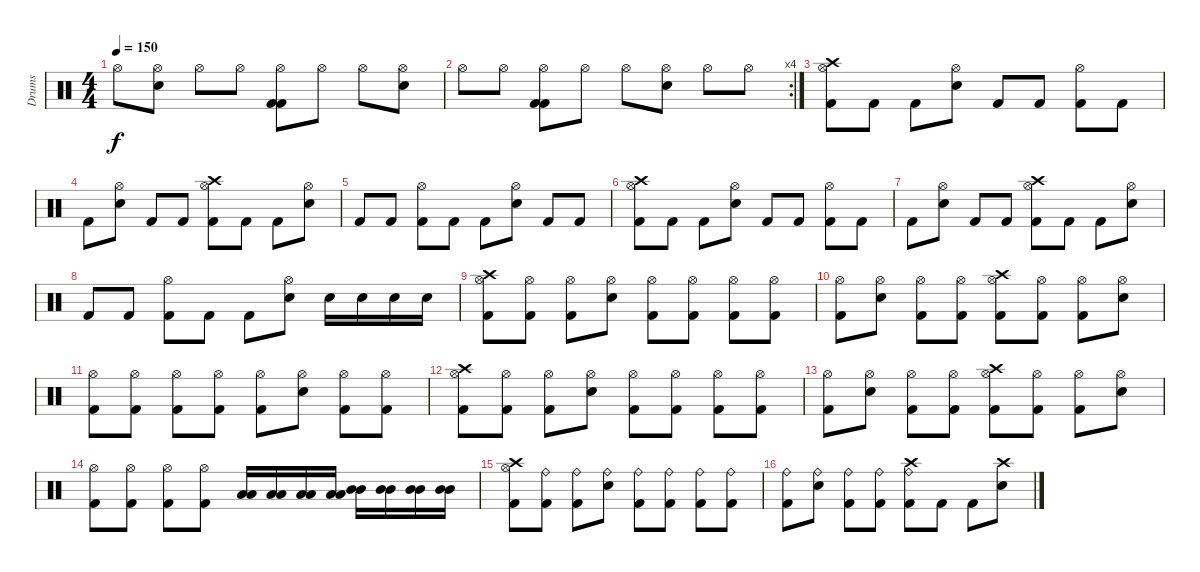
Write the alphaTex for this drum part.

\track ("Drums" "Drums") {instrument percussion}
\staff {score}
\articulation defaults
\ts (4 4)
\tempo 150
\clef neutral
\ks c "Hi-Hat (open)".8{dy f}
("Snare (hit) 2" "Hi-Hat (open)").8 "Hi-Hat (open)".8 "Hi-Hat (open)".8 ("Kick (hit) 2" "Kick (hit) 2" "Hi-Hat (open)").8 "Hi-Hat (open)".8 "Hi-Hat (open)".8 ("Snare (hit) 2" "Hi-Hat (open)").8 |
\rc 4 "Hi-Hat (open)".8 "Hi-Hat (open)".8
("Kick (hit) 2" "Kick (hit) 2" "Hi-Hat (open)").8 "Hi-Hat (open)".8 "Hi-Hat (open)".8 ("Snare (hit) 2" "Hi-Hat (open)").8 "Hi-Hat (open)".8 "Hi-Hat (open)".8 |
("Crash high (hit)" "Kick (hit) 2" "Hi-Hat (open)").8 "Kick (hit) 2".8 "Kick (hit) 2".8 ("Hi-Hat (open)" "Snare (hit) 2").8 "Kick (hit) 2".8 "Kick (hit) 2".8 ("Hi-Hat (open)" "Kick (hit) 2").8 "Kick (hit) 2".8 |
"Kick (hit) 2".8 ("Hi-Hat (open)" "Snare (hit) 2").8 "Kick (hit) 2".8 "Kick (hit) 2".8 ("Crash high (hit)" "Hi-Hat (open)" "Kick (hit) 2").8 "Kick (hit) 2".8 "Kick (hit) 2".8 ("Hi-Hat (open)" "Snare (hit) 2").8 |
"Kick (hit) 2".8 "Kick (hit) 2".8 ("Hi-Hat (open)" "Kick (hit) 2").8 "Kick (hit) 2".8 "Kick (hit) 2".8 ("Hi-Hat (open)" "Snare (hit) 2").8 "Kick (hit) 2".8 "Kick (hit) 2".8 |
("Crash high (hit)" "Kick (hit) 2" "Hi-Hat (open)").8 "Kick (hit) 2".8 "Kick (hit) 2".8 ("Hi-Hat (open)" "Snare (hit) 2").8 "Kick (hit) 2".8 "Kick (hit) 2".8 ("Hi-Hat (open)" "Kick (hit) 2").8 "Kick (hit) 2".8 |
"Kick (hit) 2".8 ("Hi-Hat (open)" "Snare (hit) 2").8 "Kick (hit) 2".8 "Kick (hit) 2".8 ("Crash high (hit)" "Hi-Hat (open)" "Kick (hit) 2").8 "Kick (hit) 2".8 "Kick (hit) 2".8 ("Hi-Hat (open)" "Snare (hit) 2").8 |
"Kick (hit) 2".8 "Kick (hit) 2".8 ("Hi-Hat (open)" "Kick (hit) 2").8 "Kick (hit) 2".8 "Kick (hit) 2".8 ("Hi-Hat (open)" "Snare (hit) 2").8 "Snare (hit) 2".16 "Snare (hit) 2".16 "Snare (hit) 2".16 "Snare (hit) 2".16 |
("Crash high (hit)" "Kick (hit) 2" "Hi-Hat (open)").8 ("Hi-Hat (open)" "Kick (hit) 2").8 ("Hi-Hat (open)" "Kick (hit) 2").8 ("Hi-Hat (open)" "Snare (hit) 2").8 ("Hi-Hat (open)" "Kick (hit) 2").8 ("Hi-Hat (open)" "Kick (hit) 2").8 ("Hi-Hat (open)" "Kick (hit) 2").8 ("Hi-Hat (open)" "Kick (hit) 2").8 |
("Hi-Hat (open)" "Kick (hit) 2").8 ("Hi-Hat (open)" "Snare (hit) 2").8 ("Hi-Hat (open)" "Kick (hit) 2").8 ("Hi-Hat (open)" "Kick (hit) 2").8 ("Crash high (hit)" "Hi-Hat (open)" "Kick (hit) 2").8 ("Hi-Hat (open)" "Kick (hit) 2").8 ("Hi-Hat (open)" "Kick (hit) 2").8 ("Hi-Hat (open)" "Snare (hit) 2").8 |
("Hi-Hat (open)" "Kick (hit) 2").8 ("Hi-Hat (open)" "Kick (hit) 2").8 ("Hi-Hat (open)" "Kick (hit) 2").8 ("Hi-Hat (open)" "Kick (hit) 2").8 ("Hi-Hat (open)" "Kick (hit) 2").8 ("Hi-Hat (open)" "Snare (hit) 2").8 ("Hi-Hat (open)" "Kick (hit) 2").8 ("Hi-Hat (open)" "Kick (hit) 2").8 |
("Crash high (hit)" "Kick (hit) 2" "Hi-Hat (open)").8 ("Hi-Hat (open)" "Kick (hit) 2").8 ("Hi-Hat (open)" "Kick (hit) 2").8 ("Hi-Hat (open)" "Snare (hit) 2").8 ("Hi-Hat (open)" "Kick (hit) 2").8 ("Hi-Hat (open)" "Kick (hit) 2").8 ("Hi-Hat (open)" "Kick (hit) 2").8 ("Hi-Hat (open)" "Kick (hit) 2").8 |
("Hi-Hat (open)" "Kick (hit) 2").8 ("Hi-Hat (open)" "Snare (hit) 2").8 ("Hi-Hat (open)" "Kick (hit) 2").8 ("Hi-Hat (open)" "Kick (hit) 2").8 ("Crash high (hit)" "Hi-Hat (open)" "Kick (hit) 2").8 ("Hi-Hat (open)" "Kick (hit) 2").8 ("Hi-Hat (open)" "Kick (hit) 2").8 ("Hi-Hat (open)" "Snare (hit) 2").8 |
("Hi-Hat (open)" "Kick (hit) 2").8 ("Hi-Hat (open)" "Kick (hit) 2").8 ("Hi-Hat (open)" "Kick (hit) 2").8 ("Hi-Hat (open)" "Kick (hit) 2").8 ("Low Tom (hit)" "Low Tom (hit)").16 ("Low Tom (hit)" "Low Tom (hit)").16 ("Low Tom (hit)" "Low Tom (hit)").16 ("Low Tom (hit)" "Low Tom (hit)").16 ("Mid Tom (hit)" "Mid Tom (hit)").16 ("Mid Tom (hit)" "Mid Tom (hit)").16 ("Mid Tom (hit)" "Mid Tom (hit)").16 ("Mid Tom (hit)" "Mid Tom (hit)").16 |
("Crash high (hit)" "Kick (hit) 2" "Hi-Hat (open)").8 ("Ride (bell)" "Kick (hit) 2").8 ("Ride (bell)" "Kick (hit) 2").8 ("Ride (bell)" "Snare (hit) 2").8 ("Ride (bell)" "Kick (hit) 2").8 ("Ride (bell)" "Kick (hit) 2").8 ("Ride (bell)" "Kick (hit) 2").8 ("Ride (bell)" "Kick (hit) 2").8 |
("Ride (bell)" "Kick (hit) 2").8 ("Ride (bell)" "Snare (hit) 2").8 ("Ride (bell)" "Kick (hit) 2").8 ("Ride (bell)" "Kick (hit) 2").8 ("Crash high (hit)" "Ride (bell)" "Kick (hit) 2").8 "Kick (hit) 2".8 "Kick (hit) 2".8 ("Crash high (hit)" "Snare (hit) 2").8
